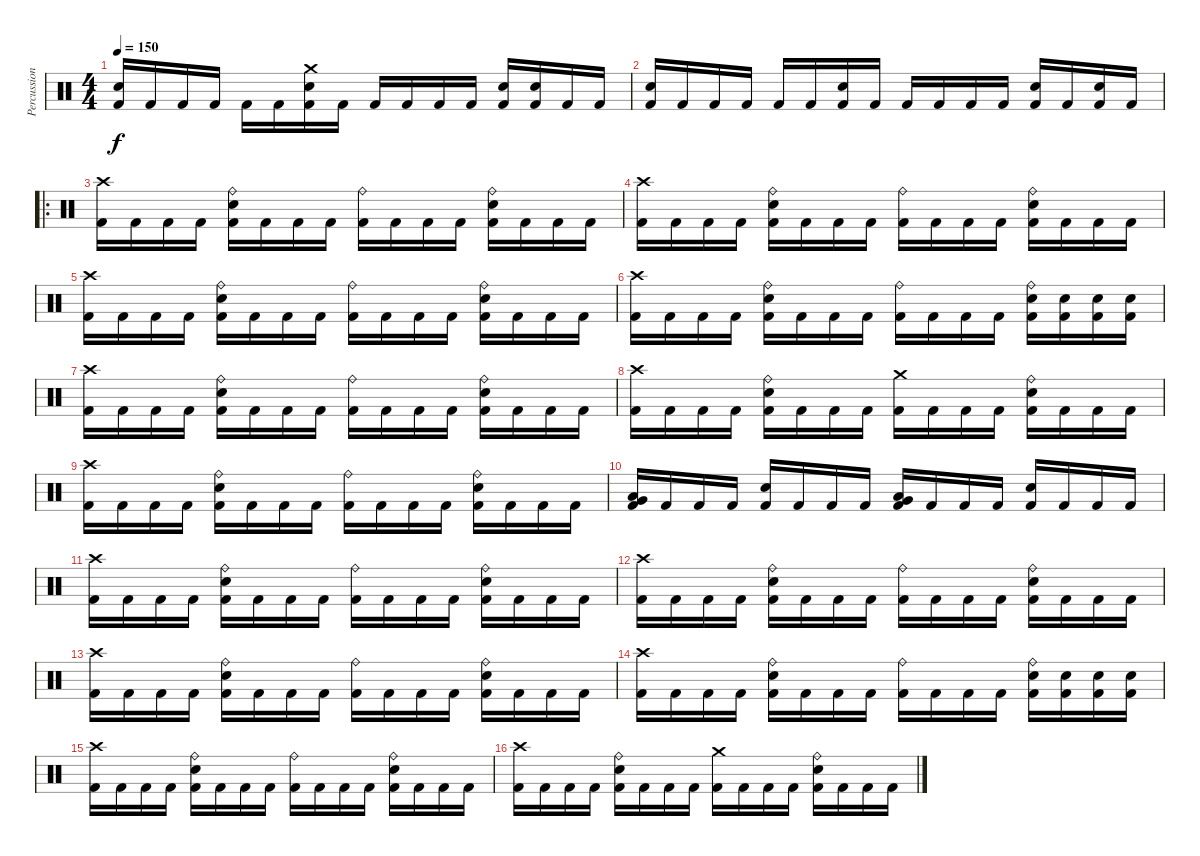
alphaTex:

\track ("Percussion" "Percussion") {instrument percussion}
\staff {score}
\articulation defaults
\ts (4 4)
\tempo 150
\clef neutral
\ks c
("Snare (hit) 2" "Kick (hit) 2").16{dy f} "Kick (hit) 2".16 "Kick (hit) 2".16 "Kick (hit) 2".16 "Kick (hit) 2".16 "Kick (hit) 2".16 ("Crash medium (hit)" "Snare (hit) 2" "Kick (hit) 2").16 "Kick (hit) 2".16 "Kick (hit) 2".16 "Kick (hit) 2".16 "Kick (hit) 2".16 "Kick (hit) 2".16 ("Snare (hit) 2" "Kick (hit) 2").16 ("Snare (hit) 2" "Kick (hit) 2").16 "Kick (hit) 2".16 "Kick (hit) 2".16 |
("Snare (hit) 2" "Kick (hit) 2").16 "Kick (hit) 2".16 "Kick (hit) 2".16 "Kick (hit) 2".16 "Kick (hit) 2".16 "Kick (hit) 2".16 ("Snare (hit) 2" "Kick (hit) 2").16 "Kick (hit) 2".16 "Kick (hit) 2".16 "Kick (hit) 2".16 "Kick (hit) 2".16 "Kick (hit) 2".16 ("Snare (hit) 2" "Kick (hit) 2").16 "Kick (hit) 2".16 ("Snare (hit) 2" "Kick (hit) 2").16 "Kick (hit) 2".16 |
\ro
("Crash high (hit)" "Kick (hit) 2").16 "Kick (hit) 2".16 "Kick (hit) 2".16 "Kick (hit) 2".16 ("Ride (bell)" "Snare (hit) 2" "Kick (hit) 2").16 "Kick (hit) 2".16 "Kick (hit) 2".16 "Kick (hit) 2".16 ("Ride (bell)" "Kick (hit) 2").16 "Kick (hit) 2".16 "Kick (hit) 2".16 "Kick (hit) 2".16 ("Ride (bell)" "Snare (hit) 2" "Kick (hit) 2").16 "Kick (hit) 2".16 "Kick (hit) 2".16 "Kick (hit) 2".16 |
("Crash high (hit)" "Kick (hit) 2").16 "Kick (hit) 2".16 "Kick (hit) 2".16 "Kick (hit) 2".16 ("Ride (bell)" "Snare (hit) 2" "Kick (hit) 2").16 "Kick (hit) 2".16 "Kick (hit) 2".16 "Kick (hit) 2".16 ("Ride (bell)" "Kick (hit) 2").16 "Kick (hit) 2".16 "Kick (hit) 2".16 "Kick (hit) 2".16 ("Ride (bell)" "Snare (hit) 2" "Kick (hit) 2").16 "Kick (hit) 2".16 "Kick (hit) 2".16 "Kick (hit) 2".16 |
("Crash high (hit)" "Kick (hit) 2").16 "Kick (hit) 2".16 "Kick (hit) 2".16 "Kick (hit) 2".16 ("Ride (bell)" "Snare (hit) 2" "Kick (hit) 2").16 "Kick (hit) 2".16 "Kick (hit) 2".16 "Kick (hit) 2".16 ("Ride (bell)" "Kick (hit) 2").16 "Kick (hit) 2".16 "Kick (hit) 2".16 "Kick (hit) 2".16 ("Ride (bell)" "Snare (hit) 2" "Kick (hit) 2").16 "Kick (hit) 2".16 "Kick (hit) 2".16 "Kick (hit) 2".16 |
("Crash high (hit)" "Kick (hit) 2").16 "Kick (hit) 2".16 "Kick (hit) 2".16 "Kick (hit) 2".16 ("Ride (bell)" "Snare (hit) 2" "Kick (hit) 2").16 "Kick (hit) 2".16 "Kick (hit) 2".16 "Kick (hit) 2".16 ("Ride (bell)" "Kick (hit) 2").16 "Kick (hit) 2".16 "Kick (hit) 2".16 "Kick (hit) 2".16 ("Ride (bell)" "Snare (hit) 2" "Kick (hit) 2").16 ("Snare (hit) 2" "Kick (hit) 2").16 ("Snare (hit) 2" "Kick (hit) 2").16 ("Snare (hit) 2" "Kick (hit) 2").16 |
("Crash high (hit)" "Kick (hit) 2").16 "Kick (hit) 2".16 "Kick (hit) 2".16 "Kick (hit) 2".16 ("Ride (bell)" "Snare (hit) 2" "Kick (hit) 2").16 "Kick (hit) 2".16 "Kick (hit) 2".16 "Kick (hit) 2".16 ("Ride (bell)" "Kick (hit) 2").16 "Kick (hit) 2".16 "Kick (hit) 2".16 "Kick (hit) 2".16 ("Ride (bell)" "Snare (hit) 2" "Kick (hit) 2").16 "Kick (hit) 2".16 "Kick (hit) 2".16 "Kick (hit) 2".16 |
("Crash high (hit)" "Kick (hit) 2").16 "Kick (hit) 2".16 "Kick (hit) 2".16 "Kick (hit) 2".16 ("Ride (bell)" "Snare (hit) 2" "Kick (hit) 2").16 "Kick (hit) 2".16 "Kick (hit) 2".16 "Kick (hit) 2".16 ("Crash medium (hit)" "Kick (hit) 2").16 "Kick (hit) 2".16 "Kick (hit) 2".16 "Kick (hit) 2".16 ("Ride (bell)" "Snare (hit) 2" "Kick (hit) 2").16 "Kick (hit) 2".16 "Kick (hit) 2".16 "Kick (hit) 2".16 |
("Crash high (hit)" "Kick (hit) 2").16 "Kick (hit) 2".16 "Kick (hit) 2".16 "Kick (hit) 2".16 ("Ride (bell)" "Snare (hit) 2" "Kick (hit) 2").16 "Kick (hit) 2".16 "Kick (hit) 2".16 "Kick (hit) 2".16 ("Ride (bell)" "Kick (hit) 2").16 "Kick (hit) 2".16 "Kick (hit) 2".16 "Kick (hit) 2".16 ("Ride (bell)" "Snare (hit) 2" "Kick (hit) 2").16 "Kick (hit) 2".16 "Kick (hit) 2".16 "Kick (hit) 2".16 |
("Low Tom (hit)" "Very Low Tom (hit)" "Kick (hit) 2").16 "Kick (hit) 2".16 "Kick (hit) 2".16 "Kick (hit) 2".16 ("Snare (hit) 2" "Kick (hit) 2").16 "Kick (hit) 2".16 "Kick (hit) 2".16 "Kick (hit) 2".16 ("Low Tom (hit)" "Very Low Tom (hit)" "Kick (hit) 2").16 "Kick (hit) 2".16 "Kick (hit) 2".16 "Kick (hit) 2".16 ("Snare (hit) 2" "Kick (hit) 2").16 "Kick (hit) 2".16 "Kick (hit) 2".16 "Kick (hit) 2".16 |
("Crash high (hit)" "Kick (hit) 2").16 "Kick (hit) 2".16 "Kick (hit) 2".16 "Kick (hit) 2".16 ("Ride (bell)" "Snare (hit) 2" "Kick (hit) 2").16 "Kick (hit) 2".16 "Kick (hit) 2".16 "Kick (hit) 2".16 ("Ride (bell)" "Kick (hit) 2").16 "Kick (hit) 2".16 "Kick (hit) 2".16 "Kick (hit) 2".16 ("Ride (bell)" "Snare (hit) 2" "Kick (hit) 2").16 "Kick (hit) 2".16 "Kick (hit) 2".16 "Kick (hit) 2".16 |
("Crash high (hit)" "Kick (hit) 2").16 "Kick (hit) 2".16 "Kick (hit) 2".16 "Kick (hit) 2".16 ("Ride (bell)" "Snare (hit) 2" "Kick (hit) 2").16 "Kick (hit) 2".16 "Kick (hit) 2".16 "Kick (hit) 2".16 ("Ride (bell)" "Kick (hit) 2").16 "Kick (hit) 2".16 "Kick (hit) 2".16 "Kick (hit) 2".16 ("Ride (bell)" "Snare (hit) 2" "Kick (hit) 2").16 "Kick (hit) 2".16 "Kick (hit) 2".16 "Kick (hit) 2".16 |
("Crash high (hit)" "Kick (hit) 2").16 "Kick (hit) 2".16 "Kick (hit) 2".16 "Kick (hit) 2".16 ("Ride (bell)" "Snare (hit) 2" "Kick (hit) 2").16 "Kick (hit) 2".16 "Kick (hit) 2".16 "Kick (hit) 2".16 ("Ride (bell)" "Kick (hit) 2").16 "Kick (hit) 2".16 "Kick (hit) 2".16 "Kick (hit) 2".16 ("Ride (bell)" "Snare (hit) 2" "Kick (hit) 2").16 "Kick (hit) 2".16 "Kick (hit) 2".16 "Kick (hit) 2".16 |
("Crash high (hit)" "Kick (hit) 2").16 "Kick (hit) 2".16 "Kick (hit) 2".16 "Kick (hit) 2".16 ("Ride (bell)" "Snare (hit) 2" "Kick (hit) 2").16 "Kick (hit) 2".16 "Kick (hit) 2".16 "Kick (hit) 2".16 ("Ride (bell)" "Kick (hit) 2").16 "Kick (hit) 2".16 "Kick (hit) 2".16 "Kick (hit) 2".16 ("Ride (bell)" "Snare (hit) 2" "Kick (hit) 2").16 ("Snare (hit) 2" "Kick (hit) 2").16 ("Snare (hit) 2" "Kick (hit) 2").16 ("Snare (hit) 2" "Kick (hit) 2").16 |
("Crash high (hit)" "Kick (hit) 2").16 "Kick (hit) 2".16 "Kick (hit) 2".16 "Kick (hit) 2".16 ("Ride (bell)" "Snare (hit) 2" "Kick (hit) 2").16 "Kick (hit) 2".16 "Kick (hit) 2".16 "Kick (hit) 2".16 ("Ride (bell)" "Kick (hit) 2").16 "Kick (hit) 2".16 "Kick (hit) 2".16 "Kick (hit) 2".16 ("Ride (bell)" "Snare (hit) 2" "Kick (hit) 2").16 "Kick (hit) 2".16 "Kick (hit) 2".16 "Kick (hit) 2".16 |
("Crash high (hit)" "Kick (hit) 2").16 "Kick (hit) 2".16 "Kick (hit) 2".16 "Kick (hit) 2".16 ("Ride (bell)" "Snare (hit) 2" "Kick (hit) 2").16 "Kick (hit) 2".16 "Kick (hit) 2".16 "Kick (hit) 2".16 ("Crash medium (hit)" "Kick (hit) 2").16 "Kick (hit) 2".16 "Kick (hit) 2".16 "Kick (hit) 2".16 ("Ride (bell)" "Snare (hit) 2" "Kick (hit) 2").16 "Kick (hit) 2".16 "Kick (hit) 2".16 "Kick (hit) 2".16
